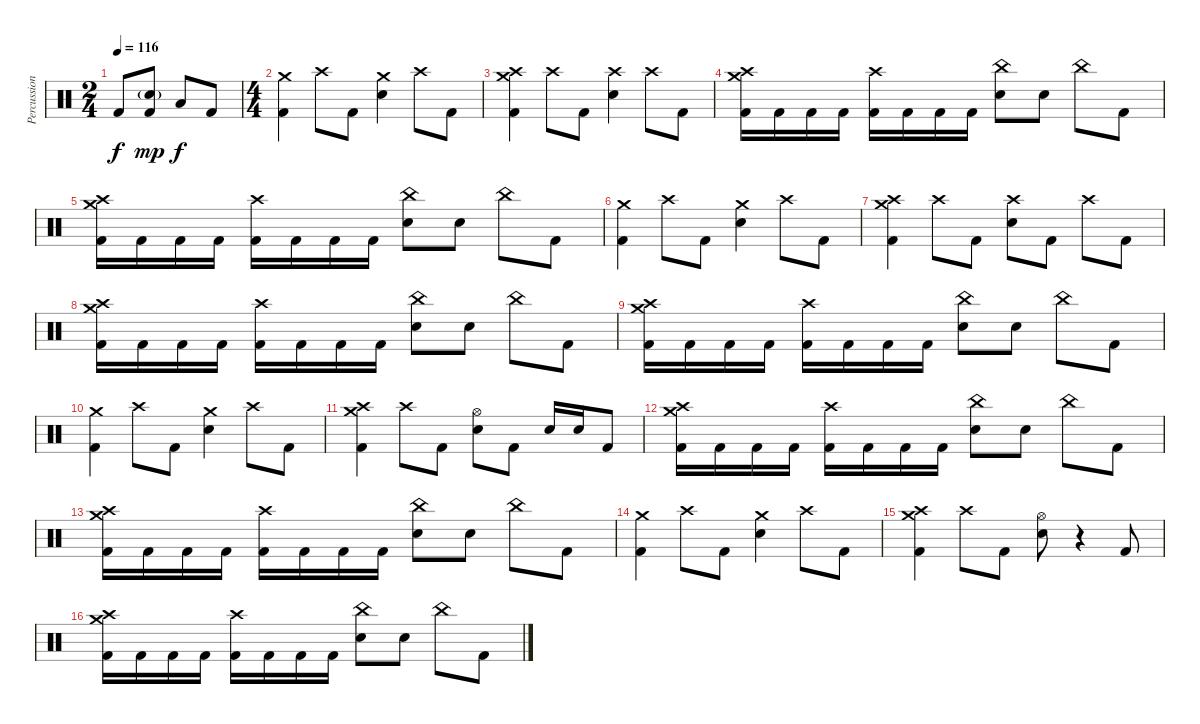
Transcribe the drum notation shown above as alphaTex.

\track ("Percussion" "Percussion") {instrument percussion}
\staff {score}
\articulation defaults
\ts (2 4)
\tempo 116
\clef neutral
\ks c "Kick (hit) 2".8{dy f}
("Electric Snare (hit)"{g} "Kick (hit) 2").8{dy mp} "Low Floor Tom (hit)".8{dy f} "Kick (hit) 2".8 |
\ts (4 4)
("Crash medium (hit)" "Kick (hit) 2").4 "Crash high (hit)".8 "Kick (hit) 2".8 ("Crash medium (hit)" "Electric Snare (hit)").4 "Crash high (hit)".8 "Kick (hit) 2".8 |
("Crash medium (hit)" "Crash high (hit)" "Kick (hit) 2").4 "Crash high (hit)".8 "Kick (hit) 2".8 ("Crash high (hit)" "Electric Snare (hit)").4 "Crash high (hit)".8 "Kick (hit) 2".8 |
("Crash medium (hit)" "Crash high (hit)" "Kick (hit) 2").16 "Kick (hit) 2".16 "Kick (hit) 2".16 "Kick (hit) 2".16 ("Crash high (hit)" "Kick (hit) 2").16 "Kick (hit) 2".16 "Kick (hit) 2".16 "Kick (hit) 2".16 ("China (hit)" "Electric Snare (hit)").8 "Electric Snare (hit)".8 "China (hit)".8 "Kick (hit) 2".8 |
("Crash medium (hit)" "Crash high (hit)" "Kick (hit) 2").16 "Kick (hit) 2".16 "Kick (hit) 2".16 "Kick (hit) 2".16 ("Crash high (hit)" "Kick (hit) 2").16 "Kick (hit) 2".16 "Kick (hit) 2".16 "Kick (hit) 2".16 ("China (hit)" "Electric Snare (hit)").8 "Electric Snare (hit)".8 "China (hit)".8 "Kick (hit) 2".8 |
("Crash medium (hit)" "Kick (hit) 2").4 "Crash high (hit)".8 "Kick (hit) 2".8 ("Crash medium (hit)" "Electric Snare (hit)").4 "Crash high (hit)".8 "Kick (hit) 2".8 |
("Crash medium (hit)" "Crash high (hit)" "Kick (hit) 2").4 "Crash high (hit)".8 "Kick (hit) 2".8 ("Crash high (hit)" "Electric Snare (hit)").8 "Kick (hit) 2".8 "Crash high (hit)".8 "Kick (hit) 2".8 |
("Crash medium (hit)" "Crash high (hit)" "Kick (hit) 2").16 "Kick (hit) 2".16 "Kick (hit) 2".16 "Kick (hit) 2".16 ("Crash high (hit)" "Kick (hit) 2").16 "Kick (hit) 2".16 "Kick (hit) 2".16 "Kick (hit) 2".16 ("China (hit)" "Electric Snare (hit)").8 "Electric Snare (hit)".8 "China (hit)".8 "Kick (hit) 2".8 |
("Crash medium (hit)" "Crash high (hit)" "Kick (hit) 2").16 "Kick (hit) 2".16 "Kick (hit) 2".16 "Kick (hit) 2".16 ("Crash high (hit)" "Kick (hit) 2").16 "Kick (hit) 2".16 "Kick (hit) 2".16 "Kick (hit) 2".16 ("China (hit)" "Electric Snare (hit)").8 "Electric Snare (hit)".8 "China (hit)".8 "Kick (hit) 2".8 |
("Crash medium (hit)" "Kick (hit) 2").4 "Crash high (hit)".8 "Kick (hit) 2".8 ("Crash medium (hit)" "Electric Snare (hit)").4 "Crash high (hit)".8 "Kick (hit) 2".8 |
("Crash medium (hit)" "Crash high (hit)" "Kick (hit) 2").4 "Crash high (hit)".8 "Kick (hit) 2".8 ("Hi-Hat (open)" "Electric Snare (hit)").8 "Kick (hit) 2".8 "Electric Snare (hit)".16 "Electric Snare (hit)".16 "Kick (hit) 2".8 |
("Crash medium (hit)" "Crash high (hit)" "Kick (hit) 2").16 "Kick (hit) 2".16 "Kick (hit) 2".16 "Kick (hit) 2".16 ("Crash high (hit)" "Kick (hit) 2").16 "Kick (hit) 2".16 "Kick (hit) 2".16 "Kick (hit) 2".16 ("China (hit)" "Electric Snare (hit)").8 "Electric Snare (hit)".8 "China (hit)".8 "Kick (hit) 2".8 |
("Crash medium (hit)" "Crash high (hit)" "Kick (hit) 2").16 "Kick (hit) 2".16 "Kick (hit) 2".16 "Kick (hit) 2".16 ("Crash high (hit)" "Kick (hit) 2").16 "Kick (hit) 2".16 "Kick (hit) 2".16 "Kick (hit) 2".16 ("China (hit)" "Electric Snare (hit)").8 "Electric Snare (hit)".8 "China (hit)".8 "Kick (hit) 2".8 |
("Crash medium (hit)" "Kick (hit) 2").4 "Crash high (hit)".8 "Kick (hit) 2".8 ("Crash medium (hit)" "Electric Snare (hit)").4 "Crash high (hit)".8 "Kick (hit) 2".8 |
("Crash medium (hit)" "Crash high (hit)" "Kick (hit) 2").4 "Crash high (hit)".8 "Kick (hit) 2".8 ("Hi-Hat (open)" "Electric Snare (hit)").8 r.4 "Kick (hit) 2".8 |
("Crash medium (hit)" "Crash high (hit)" "Kick (hit) 2").16 "Kick (hit) 2".16 "Kick (hit) 2".16 "Kick (hit) 2".16 ("Crash high (hit)" "Kick (hit) 2").16 "Kick (hit) 2".16 "Kick (hit) 2".16 "Kick (hit) 2".16 ("China (hit)" "Electric Snare (hit)").8 "Electric Snare (hit)".8 "China (hit)".8 "Kick (hit) 2".8
